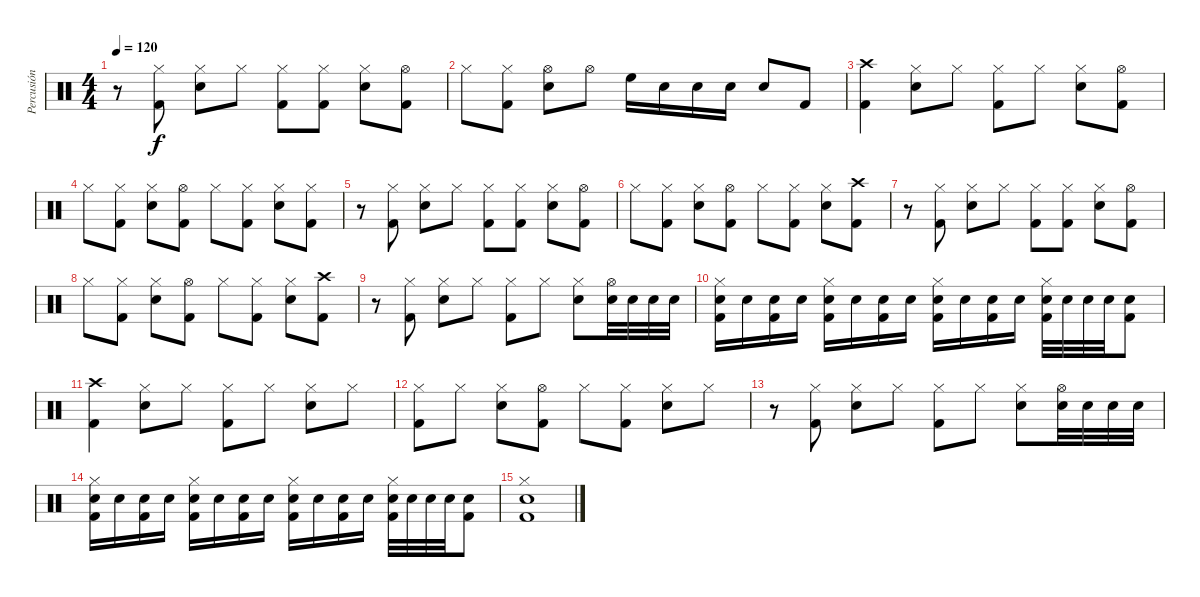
\track ("Percusión" "Percusión") {instrument percussion}
\staff {score}
\articulation defaults
\ts (4 4)
\tempo 120
\clef neutral
\ks c
r.8{dy f} ("Hi-Hat (closed)" "Kick (hit) 2").8 ("Hi-Hat (closed)" "Snare (hit) 2").8 "Hi-Hat (closed)".8 ("Hi-Hat (closed)" "Kick (hit) 2").8 ("Hi-Hat (closed)" "Kick (hit) 2").8 ("Hi-Hat (closed)" "Snare (hit) 2").8 ("Hi-Hat (open)" "Kick (hit) 2").8 |
"Hi-Hat (closed)".8 ("Hi-Hat (closed)" "Kick (hit) 2").8 ("Hi-Hat (open)" "Snare (hit) 2").8 "Hi-Hat (open)".8 "High Floor Tom (hit)".16 "Snare (hit) 2".16 "Snare (hit) 2".16 "Snare (hit) 2".16 "Snare (hit) 2".8 "Kick (hit) 2".8 |
("Crash high (hit)" "Kick (hit) 2").4 ("Hi-Hat (closed)" "Snare (hit) 2").8 "Hi-Hat (closed)".8 ("Hi-Hat (closed)" "Kick (hit) 2").8 "Hi-Hat (closed)".8 ("Hi-Hat (closed)" "Snare (hit) 2").8 ("Hi-Hat (open)" "Kick (hit) 2").8 |
"Hi-Hat (closed)".8 ("Hi-Hat (closed)" "Kick (hit) 2").8 ("Hi-Hat (closed)" "Snare (hit) 2").8 ("Hi-Hat (open)" "Kick (hit) 2").8 "Hi-Hat (closed)".8 ("Hi-Hat (closed)" "Kick (hit) 2").8 ("Hi-Hat (closed)" "Snare (hit) 2").8 ("Hi-Hat (closed)" "Kick (hit) 2").8 |
r.8 ("Hi-Hat (closed)" "Kick (hit) 2").8 ("Hi-Hat (closed)" "Snare (hit) 2").8 "Hi-Hat (closed)".8 ("Hi-Hat (closed)" "Kick (hit) 2").8 ("Hi-Hat (closed)" "Kick (hit) 2").8 ("Hi-Hat (closed)" "Snare (hit) 2").8 ("Hi-Hat (open)" "Kick (hit) 2").8 |
"Hi-Hat (closed)".8 ("Hi-Hat (closed)" "Kick (hit) 2").8 ("Hi-Hat (closed)" "Snare (hit) 2").8 ("Hi-Hat (open)" "Kick (hit) 2").8 "Hi-Hat (closed)".8 ("Hi-Hat (closed)" "Kick (hit) 2").8 ("Hi-Hat (closed)" "Snare (hit) 2").8 ("Crash high (hit)" "Kick (hit) 2").8 |
r.8 ("Hi-Hat (closed)" "Kick (hit) 2").8 ("Hi-Hat (closed)" "Snare (hit) 2").8 "Hi-Hat (closed)".8 ("Hi-Hat (closed)" "Kick (hit) 2").8 ("Hi-Hat (closed)" "Kick (hit) 2").8 ("Hi-Hat (closed)" "Snare (hit) 2").8 ("Hi-Hat (open)" "Kick (hit) 2").8 |
"Hi-Hat (closed)".8 ("Hi-Hat (closed)" "Kick (hit) 2").8 ("Hi-Hat (closed)" "Snare (hit) 2").8 ("Hi-Hat (open)" "Kick (hit) 2").8 "Hi-Hat (closed)".8 ("Hi-Hat (closed)" "Kick (hit) 2").8 ("Hi-Hat (closed)" "Snare (hit) 2").8 ("Crash high (hit)" "Kick (hit) 2").8 |
r.8 ("Hi-Hat (closed)" "Kick (hit) 2").8 ("Hi-Hat (closed)" "Snare (hit) 2").8 "Hi-Hat (closed)".8 ("Hi-Hat (closed)" "Kick (hit) 2").8 "Hi-Hat (closed)".8 ("Hi-Hat (closed)" "Snare (hit) 2").8 ("Hi-Hat (open)" "Snare (hit) 2").32 "Snare (hit) 2".32 "Snare (hit) 2".32 "Snare (hit) 2".32 |
("Hi-Hat (closed)" "Snare (hit) 2" "Kick (hit) 2").16 "Snare (hit) 2".16 ("Snare (hit) 2" "Kick (hit) 2").16 "Snare (hit) 2".16 ("Hi-Hat (closed)" "Snare (hit) 2" "Kick (hit) 2").16 "Snare (hit) 2".16 ("Snare (hit) 2" "Kick (hit) 2").16 "Snare (hit) 2".16 ("Hi-Hat (closed)" "Snare (hit) 2" "Kick (hit) 2").16 "Snare (hit) 2".16 ("Snare (hit) 2" "Kick (hit) 2").16 "Snare (hit) 2".16 ("Hi-Hat (closed)" "Snare (hit) 2" "Kick (hit) 2").32 "Snare (hit) 2".32 "Snare (hit) 2".32 "Snare (hit) 2".32 ("Snare (hit) 2" "Kick (hit) 2").8 |
("Crash high (hit)" "Kick (hit) 2").4 ("Hi-Hat (closed)" "Snare (hit) 2").8 "Hi-Hat (closed)".8 ("Hi-Hat (closed)" "Kick (hit) 2").8 "Hi-Hat (closed)".8 ("Hi-Hat (closed)" "Snare (hit) 2").8 "Hi-Hat (closed)".8 |
("Hi-Hat (closed)" "Kick (hit) 2").8 "Hi-Hat (closed)".8 ("Hi-Hat (closed)" "Snare (hit) 2").8 ("Hi-Hat (open)" "Kick (hit) 2").8 "Hi-Hat (closed)".8 ("Hi-Hat (closed)" "Kick (hit) 2").8 ("Hi-Hat (closed)" "Snare (hit) 2").8 "Hi-Hat (closed)".8 |
r.8 ("Hi-Hat (closed)" "Kick (hit) 2").8 ("Hi-Hat (closed)" "Snare (hit) 2").8 "Hi-Hat (closed)".8 ("Hi-Hat (closed)" "Kick (hit) 2").8 "Hi-Hat (closed)".8 ("Hi-Hat (closed)" "Snare (hit) 2").8 ("Hi-Hat (open)" "Snare (hit) 2").32 "Snare (hit) 2".32 "Snare (hit) 2".32 "Snare (hit) 2".32 |
("Hi-Hat (closed)" "Snare (hit) 2" "Kick (hit) 2").16 "Snare (hit) 2".16 ("Snare (hit) 2" "Kick (hit) 2").16 "Snare (hit) 2".16 ("Hi-Hat (closed)" "Snare (hit) 2" "Kick (hit) 2").16 "Snare (hit) 2".16 ("Snare (hit) 2" "Kick (hit) 2").16 "Snare (hit) 2".16 ("Hi-Hat (closed)" "Snare (hit) 2" "Kick (hit) 2").16 "Snare (hit) 2".16 ("Snare (hit) 2" "Kick (hit) 2").16 "Snare (hit) 2".16 ("Hi-Hat (closed)" "Snare (hit) 2" "Kick (hit) 2").32 "Snare (hit) 2".32 "Snare (hit) 2".32 "Snare (hit) 2".32 ("Snare (hit) 2" "Kick (hit) 2").8 |
("Hi-Hat (closed)" "Snare (hit) 2" "Kick (hit) 2").1
